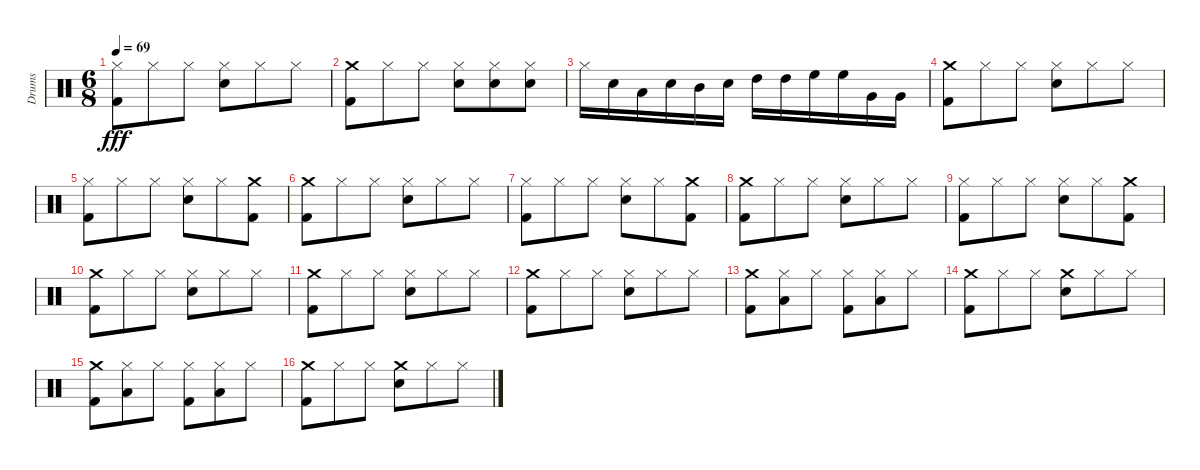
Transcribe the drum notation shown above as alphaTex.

\track ("Drums" "Drums") {instrument percussion}
\staff {score}
\articulation defaults
\ts (6 8)
\tempo 69
\clef neutral
\ks c
("Kick (hit) 2" "Hi-Hat (closed)").8{dy fff} "Hi-Hat (closed)".8 "Hi-Hat (closed)".8 ("Snare (hit) 2" "Hi-Hat (closed)").8 "Hi-Hat (closed)".8 "Hi-Hat (closed)".8 |
("Kick (hit) 2" "Crash medium (hit)").8 "Hi-Hat (closed)".8 "Hi-Hat (closed)".8 ("Snare (hit) 2" "Hi-Hat (closed)").8 ("Snare (hit) 2" "Hi-Hat (closed)").8 ("Snare (hit) 2" "Hi-Hat (closed)").8 |
"Hi-Hat (closed)".16 "Snare (hit) 2".16 "Low Tom (hit)".16 "Snare (hit) 2".16 "Mid Tom (hit)".16 "Snare (hit) 2".16 "High Tom (hit)".16 "High Tom (hit)".16 "High Floor Tom (hit)".16 "High Floor Tom (hit)".16 "Very Low Tom (hit)".16 "Very Low Tom (hit)".16 |
("Kick (hit) 2" "Crash medium (hit)").8 "Hi-Hat (closed)".8 "Hi-Hat (closed)".8 ("Snare (hit) 2" "Hi-Hat (closed)").8 "Hi-Hat (closed)".8 "Hi-Hat (closed)".8 |
("Kick (hit) 2" "Hi-Hat (closed)").8 "Hi-Hat (closed)".8 "Hi-Hat (closed)".8 ("Snare (hit) 2" "Hi-Hat (closed)").8 "Hi-Hat (closed)".8 ("Kick (hit) 2" "Crash medium (hit)").8 |
("Kick (hit) 2" "Crash medium (hit)").8 "Hi-Hat (closed)".8 "Hi-Hat (closed)".8 ("Snare (hit) 2" "Hi-Hat (closed)").8 "Hi-Hat (closed)".8 "Hi-Hat (closed)".8 |
("Kick (hit) 2" "Hi-Hat (closed)").8 "Hi-Hat (closed)".8 "Hi-Hat (closed)".8 ("Snare (hit) 2" "Hi-Hat (closed)").8 "Hi-Hat (closed)".8 ("Kick (hit) 2" "Crash medium (hit)").8 |
("Kick (hit) 2" "Crash medium (hit)").8 "Hi-Hat (closed)".8 "Hi-Hat (closed)".8 ("Snare (hit) 2" "Hi-Hat (closed)").8 "Hi-Hat (closed)".8 "Hi-Hat (closed)".8 |
("Kick (hit) 2" "Hi-Hat (closed)").8 "Hi-Hat (closed)".8 "Hi-Hat (closed)".8 ("Snare (hit) 2" "Hi-Hat (closed)").8 "Hi-Hat (closed)".8 ("Kick (hit) 2" "Crash medium (hit)").8 |
("Kick (hit) 2" "Crash medium (hit)").8 "Hi-Hat (closed)".8 "Hi-Hat (closed)".8 ("Snare (hit) 2" "Hi-Hat (closed)").8 "Hi-Hat (closed)".8 "Hi-Hat (closed)".8 |
("Kick (hit) 2" "Crash medium (hit)").8 "Hi-Hat (closed)".8 "Hi-Hat (closed)".8 ("Snare (hit) 2" "Hi-Hat (closed)").8 "Hi-Hat (closed)".8 "Hi-Hat (closed)".8 |
("Kick (hit) 2" "Crash medium (hit)").8 "Hi-Hat (closed)".8 "Hi-Hat (closed)".8 ("Snare (hit) 2" "Hi-Hat (closed)").8 "Hi-Hat (closed)".8 "Hi-Hat (closed)".8 |
("Kick (hit) 2" "Crash medium (hit)").8 ("Low Tom (hit)" "Hi-Hat (closed)").8 "Hi-Hat (closed)".8 ("Kick (hit) 2" "Hi-Hat (closed)").8 ("Low Tom (hit)" "Hi-Hat (closed)").8 "Hi-Hat (closed)".8 |
("Kick (hit) 2" "Crash medium (hit)").8 "Hi-Hat (closed)".8 "Hi-Hat (closed)".8 ("Snare (hit) 2" "Crash medium (hit)").8 "Hi-Hat (closed)".8 "Hi-Hat (closed)".8 |
("Kick (hit) 2" "Crash medium (hit)").8 ("Low Tom (hit)" "Hi-Hat (closed)").8 "Hi-Hat (closed)".8 ("Kick (hit) 2" "Hi-Hat (closed)").8 ("Low Tom (hit)" "Hi-Hat (closed)").8 "Hi-Hat (closed)".8 |
("Kick (hit) 2" "Crash medium (hit)").8 "Hi-Hat (closed)".8 "Hi-Hat (closed)".8 ("Crash medium (hit)" "Snare (hit) 2").8 "Hi-Hat (closed)".8 "Hi-Hat (closed)".8
